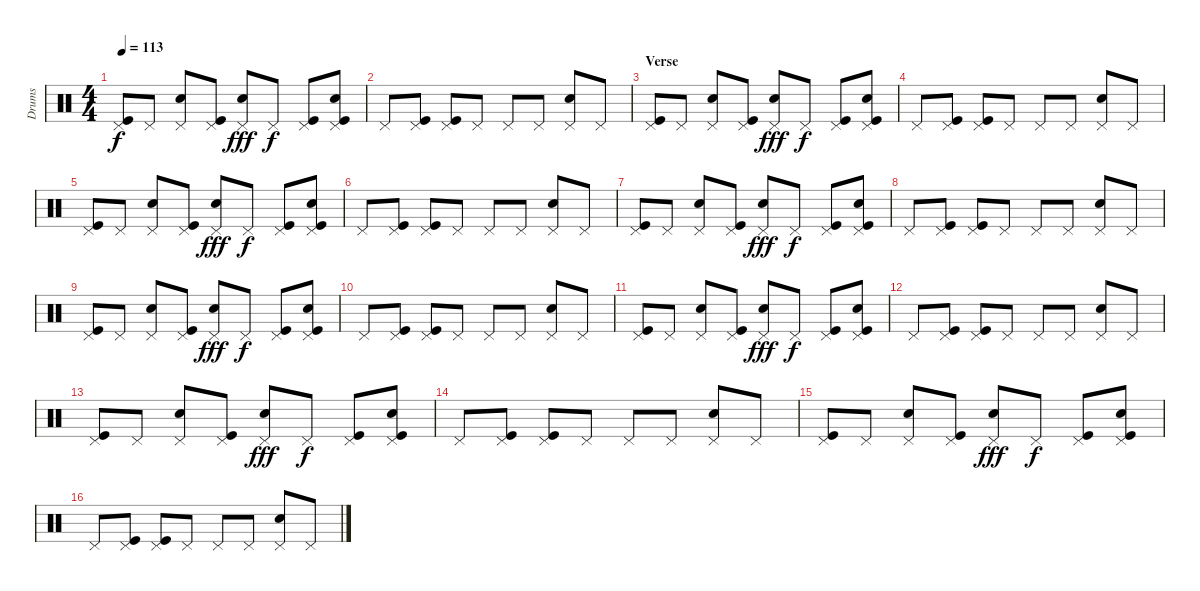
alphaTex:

\track ("Drums" "Drums") {instrument percussion}
\staff {score}
\articulation defaults
\ts (4 4)
\tempo 113
\clef neutral
\ks c
("Pedal Hi-Hat (hit)" "Kick (hit)").8{dy f} "Pedal Hi-Hat (hit)".8 ("Pedal Hi-Hat (hit)" "Electric Snare (hit)").8 ("Pedal Hi-Hat (hit)" "Kick (hit)").8 ("Pedal Hi-Hat (hit)" "Snare (hit) 2").8{dy fff} "Pedal Hi-Hat (hit)".8{dy f} ("Pedal Hi-Hat (hit)" "Kick (hit)").8 ("Pedal Hi-Hat (hit)" "Electric Snare (hit)" "Kick (hit)").8 |
"Pedal Hi-Hat (hit)".8 ("Pedal Hi-Hat (hit)" "Kick (hit)").8 ("Pedal Hi-Hat (hit)" "Kick (hit)").8 "Pedal Hi-Hat (hit)".8 "Pedal Hi-Hat (hit)".8 "Pedal Hi-Hat (hit)".8 ("Pedal Hi-Hat (hit)" "Snare (hit) 2").8 "Pedal Hi-Hat (hit)".8 |
\section ("" "Verse")
("Pedal Hi-Hat (hit)" "Kick (hit)").8 "Pedal Hi-Hat (hit)".8 ("Pedal Hi-Hat (hit)" "Electric Snare (hit)").8 ("Pedal Hi-Hat (hit)" "Kick (hit)").8 ("Pedal Hi-Hat (hit)" "Snare (hit) 2").8{dy fff} "Pedal Hi-Hat (hit)".8{dy f} ("Pedal Hi-Hat (hit)" "Kick (hit)").8 ("Pedal Hi-Hat (hit)" "Electric Snare (hit)" "Kick (hit)").8 |
"Pedal Hi-Hat (hit)".8 ("Pedal Hi-Hat (hit)" "Kick (hit)").8 ("Pedal Hi-Hat (hit)" "Kick (hit)").8 "Pedal Hi-Hat (hit)".8 "Pedal Hi-Hat (hit)".8 "Pedal Hi-Hat (hit)".8 ("Pedal Hi-Hat (hit)" "Snare (hit) 2").8 "Pedal Hi-Hat (hit)".8 |
("Pedal Hi-Hat (hit)" "Kick (hit)").8 "Pedal Hi-Hat (hit)".8 ("Pedal Hi-Hat (hit)" "Electric Snare (hit)").8 ("Pedal Hi-Hat (hit)" "Kick (hit)").8 ("Pedal Hi-Hat (hit)" "Snare (hit) 2").8{dy fff} "Pedal Hi-Hat (hit)".8{dy f} ("Pedal Hi-Hat (hit)" "Kick (hit)").8 ("Pedal Hi-Hat (hit)" "Electric Snare (hit)" "Kick (hit)").8 |
"Pedal Hi-Hat (hit)".8 ("Pedal Hi-Hat (hit)" "Kick (hit)").8 ("Pedal Hi-Hat (hit)" "Kick (hit)").8 "Pedal Hi-Hat (hit)".8 "Pedal Hi-Hat (hit)".8 "Pedal Hi-Hat (hit)".8 ("Pedal Hi-Hat (hit)" "Snare (hit) 2").8 "Pedal Hi-Hat (hit)".8 |
("Pedal Hi-Hat (hit)" "Kick (hit)").8 "Pedal Hi-Hat (hit)".8 ("Pedal Hi-Hat (hit)" "Electric Snare (hit)").8 ("Pedal Hi-Hat (hit)" "Kick (hit)").8 ("Pedal Hi-Hat (hit)" "Snare (hit) 2").8{dy fff} "Pedal Hi-Hat (hit)".8{dy f} ("Pedal Hi-Hat (hit)" "Kick (hit)").8 ("Pedal Hi-Hat (hit)" "Electric Snare (hit)" "Kick (hit)").8 |
"Pedal Hi-Hat (hit)".8 ("Pedal Hi-Hat (hit)" "Kick (hit)").8 ("Pedal Hi-Hat (hit)" "Kick (hit)").8 "Pedal Hi-Hat (hit)".8 "Pedal Hi-Hat (hit)".8 "Pedal Hi-Hat (hit)".8 ("Pedal Hi-Hat (hit)" "Snare (hit) 2").8 "Pedal Hi-Hat (hit)".8 |
("Pedal Hi-Hat (hit)" "Kick (hit)").8 "Pedal Hi-Hat (hit)".8 ("Pedal Hi-Hat (hit)" "Electric Snare (hit)").8 ("Pedal Hi-Hat (hit)" "Kick (hit)").8 ("Pedal Hi-Hat (hit)" "Snare (hit) 2").8{dy fff} "Pedal Hi-Hat (hit)".8{dy f} ("Pedal Hi-Hat (hit)" "Kick (hit)").8 ("Pedal Hi-Hat (hit)" "Electric Snare (hit)" "Kick (hit)").8 |
"Pedal Hi-Hat (hit)".8 ("Pedal Hi-Hat (hit)" "Kick (hit)").8 ("Pedal Hi-Hat (hit)" "Kick (hit)").8 "Pedal Hi-Hat (hit)".8 "Pedal Hi-Hat (hit)".8 "Pedal Hi-Hat (hit)".8 ("Pedal Hi-Hat (hit)" "Snare (hit) 2").8 "Pedal Hi-Hat (hit)".8 |
("Pedal Hi-Hat (hit)" "Kick (hit)").8 "Pedal Hi-Hat (hit)".8 ("Pedal Hi-Hat (hit)" "Electric Snare (hit)").8 ("Pedal Hi-Hat (hit)" "Kick (hit)").8 ("Pedal Hi-Hat (hit)" "Snare (hit) 2").8{dy fff} "Pedal Hi-Hat (hit)".8{dy f} ("Pedal Hi-Hat (hit)" "Kick (hit)").8 ("Pedal Hi-Hat (hit)" "Electric Snare (hit)" "Kick (hit)").8 |
"Pedal Hi-Hat (hit)".8 ("Pedal Hi-Hat (hit)" "Kick (hit)").8 ("Pedal Hi-Hat (hit)" "Kick (hit)").8 "Pedal Hi-Hat (hit)".8 "Pedal Hi-Hat (hit)".8 "Pedal Hi-Hat (hit)".8 ("Pedal Hi-Hat (hit)" "Snare (hit) 2").8 "Pedal Hi-Hat (hit)".8 |
("Pedal Hi-Hat (hit)" "Kick (hit)").8 "Pedal Hi-Hat (hit)".8 ("Pedal Hi-Hat (hit)" "Electric Snare (hit)").8 ("Pedal Hi-Hat (hit)" "Kick (hit)").8 ("Pedal Hi-Hat (hit)" "Snare (hit) 2").8{dy fff} "Pedal Hi-Hat (hit)".8{dy f} ("Pedal Hi-Hat (hit)" "Kick (hit)").8 ("Pedal Hi-Hat (hit)" "Electric Snare (hit)" "Kick (hit)").8 |
"Pedal Hi-Hat (hit)".8 ("Pedal Hi-Hat (hit)" "Kick (hit)").8 ("Pedal Hi-Hat (hit)" "Kick (hit)").8 "Pedal Hi-Hat (hit)".8 "Pedal Hi-Hat (hit)".8 "Pedal Hi-Hat (hit)".8 ("Pedal Hi-Hat (hit)" "Snare (hit) 2").8 "Pedal Hi-Hat (hit)".8 |
("Pedal Hi-Hat (hit)" "Kick (hit)").8 "Pedal Hi-Hat (hit)".8 ("Pedal Hi-Hat (hit)" "Electric Snare (hit)").8 ("Pedal Hi-Hat (hit)" "Kick (hit)").8 ("Pedal Hi-Hat (hit)" "Snare (hit) 2").8{dy fff} "Pedal Hi-Hat (hit)".8{dy f} ("Pedal Hi-Hat (hit)" "Kick (hit)").8 ("Pedal Hi-Hat (hit)" "Electric Snare (hit)" "Kick (hit)").8 |
"Pedal Hi-Hat (hit)".8 ("Pedal Hi-Hat (hit)" "Kick (hit)").8 ("Pedal Hi-Hat (hit)" "Kick (hit)").8 "Pedal Hi-Hat (hit)".8 "Pedal Hi-Hat (hit)".8 "Pedal Hi-Hat (hit)".8 ("Pedal Hi-Hat (hit)" "Snare (hit) 2").8 "Pedal Hi-Hat (hit)".8
